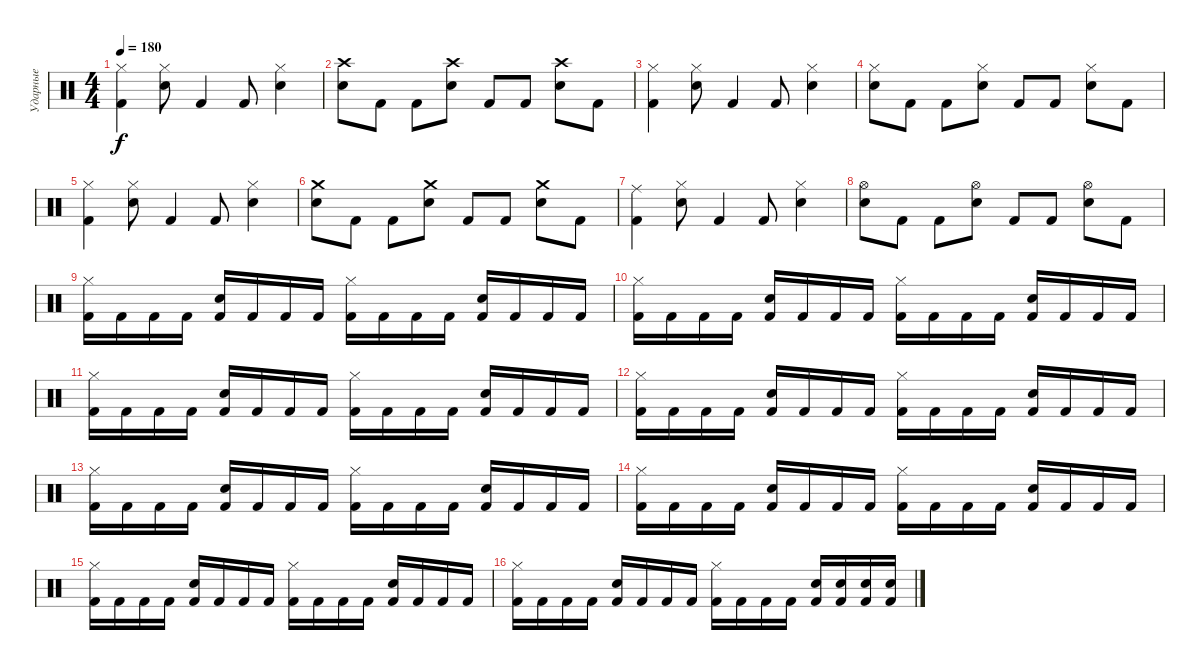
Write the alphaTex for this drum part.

\track ("Ударные" "Ударные") {instrument percussion}
\staff {score}
\articulation defaults
\ts (4 4)
\tempo 180
\clef neutral
\ks c
("Hi-Hat (closed)" "Kick (hit) 2").4{dy f} ("Hi-Hat (closed)" "Snare (hit) 2").8 "Kick (hit) 2".4 "Kick (hit) 2".8 ("Hi-Hat (closed)" "Snare (hit) 2").4 |
("Crash high (hit)" "Snare (hit) 2").8 "Kick (hit) 2".8 "Kick (hit) 2".8 ("Crash high (hit)" "Snare (hit) 2").8 "Kick (hit) 2".8 "Kick (hit) 2".8 ("Crash high (hit)" "Snare (hit) 2").8 "Kick (hit) 2".8 |
("Hi-Hat (closed)" "Kick (hit) 2").4 ("Hi-Hat (closed)" "Snare (hit) 2").8 "Kick (hit) 2".4 "Kick (hit) 2".8 ("Hi-Hat (closed)" "Snare (hit) 2").4 |
("Hi-Hat (closed)" "Snare (hit) 2").8 "Kick (hit) 2".8 "Kick (hit) 2".8 ("Hi-Hat (closed)" "Snare (hit) 2").8 "Kick (hit) 2".8 "Kick (hit) 2".8 ("Hi-Hat (closed)" "Snare (hit) 2").8 "Kick (hit) 2".8 |
("Hi-Hat (closed)" "Kick (hit) 2").4 ("Hi-Hat (closed)" "Snare (hit) 2").8 "Kick (hit) 2".4 "Kick (hit) 2".8 ("Hi-Hat (closed)" "Snare (hit) 2").4 |
("Crash medium (hit)" "Snare (hit) 2").8 "Kick (hit) 2".8 "Kick (hit) 2".8 ("Crash medium (hit)" "Snare (hit) 2").8 "Kick (hit) 2".8 "Kick (hit) 2".8 ("Crash medium (hit)" "Snare (hit) 2").8 "Kick (hit) 2".8 |
("Ride (middle)" "Kick (hit) 2").4 ("Hi-Hat (closed)" "Snare (hit) 2").8 "Kick (hit) 2".4 "Kick (hit) 2".8 ("Hi-Hat (closed)" "Snare (hit) 2").4 |
("Hi-Hat (open)" "Snare (hit) 2").8 "Kick (hit) 2".8 "Kick (hit) 2".8 ("Hi-Hat (open)" "Snare (hit) 2").8 "Kick (hit) 2".8 "Kick (hit) 2".8 ("Hi-Hat (open)" "Snare (hit) 2").8 "Kick (hit) 2".8 |
("Hi-Hat (closed)" "Kick (hit) 2").16 "Kick (hit) 2".16 "Kick (hit) 2".16 "Kick (hit) 2".16 ("Snare (hit) 2" "Kick (hit) 2").16 "Kick (hit) 2".16 "Kick (hit) 2".16 "Kick (hit) 2".16 ("Hi-Hat (closed)" "Kick (hit) 2").16 "Kick (hit) 2".16 "Kick (hit) 2".16 "Kick (hit) 2".16 ("Snare (hit) 2" "Kick (hit) 2").16 "Kick (hit) 2".16 "Kick (hit) 2".16 "Kick (hit) 2".16 |
("Hi-Hat (closed)" "Kick (hit) 2").16 "Kick (hit) 2".16 "Kick (hit) 2".16 "Kick (hit) 2".16 ("Snare (hit) 2" "Kick (hit) 2").16 "Kick (hit) 2".16 "Kick (hit) 2".16 "Kick (hit) 2".16 ("Hi-Hat (closed)" "Kick (hit) 2").16 "Kick (hit) 2".16 "Kick (hit) 2".16 "Kick (hit) 2".16 ("Snare (hit) 2" "Kick (hit) 2").16 "Kick (hit) 2".16 "Kick (hit) 2".16 "Kick (hit) 2".16 |
("Hi-Hat (closed)" "Kick (hit) 2").16 "Kick (hit) 2".16 "Kick (hit) 2".16 "Kick (hit) 2".16 ("Snare (hit) 2" "Kick (hit) 2").16 "Kick (hit) 2".16 "Kick (hit) 2".16 "Kick (hit) 2".16 ("Hi-Hat (closed)" "Kick (hit) 2").16 "Kick (hit) 2".16 "Kick (hit) 2".16 "Kick (hit) 2".16 ("Snare (hit) 2" "Kick (hit) 2").16 "Kick (hit) 2".16 "Kick (hit) 2".16 "Kick (hit) 2".16 |
("Hi-Hat (closed)" "Kick (hit) 2").16 "Kick (hit) 2".16 "Kick (hit) 2".16 "Kick (hit) 2".16 ("Snare (hit) 2" "Kick (hit) 2").16 "Kick (hit) 2".16 "Kick (hit) 2".16 "Kick (hit) 2".16 ("Hi-Hat (closed)" "Kick (hit) 2").16 "Kick (hit) 2".16 "Kick (hit) 2".16 "Kick (hit) 2".16 ("Snare (hit) 2" "Kick (hit) 2").16 "Kick (hit) 2".16 "Kick (hit) 2".16 "Kick (hit) 2".16 |
("Hi-Hat (closed)" "Kick (hit) 2").16 "Kick (hit) 2".16 "Kick (hit) 2".16 "Kick (hit) 2".16 ("Snare (hit) 2" "Kick (hit) 2").16 "Kick (hit) 2".16 "Kick (hit) 2".16 "Kick (hit) 2".16 ("Hi-Hat (closed)" "Kick (hit) 2").16 "Kick (hit) 2".16 "Kick (hit) 2".16 "Kick (hit) 2".16 ("Snare (hit) 2" "Kick (hit) 2").16 "Kick (hit) 2".16 "Kick (hit) 2".16 "Kick (hit) 2".16 |
("Hi-Hat (closed)" "Kick (hit) 2").16 "Kick (hit) 2".16 "Kick (hit) 2".16 "Kick (hit) 2".16 ("Snare (hit) 2" "Kick (hit) 2").16 "Kick (hit) 2".16 "Kick (hit) 2".16 "Kick (hit) 2".16 ("Hi-Hat (closed)" "Kick (hit) 2").16 "Kick (hit) 2".16 "Kick (hit) 2".16 "Kick (hit) 2".16 ("Snare (hit) 2" "Kick (hit) 2").16 "Kick (hit) 2".16 "Kick (hit) 2".16 "Kick (hit) 2".16 |
("Hi-Hat (closed)" "Kick (hit) 2").16 "Kick (hit) 2".16 "Kick (hit) 2".16 "Kick (hit) 2".16 ("Snare (hit) 2" "Kick (hit) 2").16 "Kick (hit) 2".16 "Kick (hit) 2".16 "Kick (hit) 2".16 ("Hi-Hat (closed)" "Kick (hit) 2").16 "Kick (hit) 2".16 "Kick (hit) 2".16 "Kick (hit) 2".16 ("Snare (hit) 2" "Kick (hit) 2").16 "Kick (hit) 2".16 "Kick (hit) 2".16 "Kick (hit) 2".16 |
("Hi-Hat (closed)" "Kick (hit) 2").16 "Kick (hit) 2".16 "Kick (hit) 2".16 "Kick (hit) 2".16 ("Snare (hit) 2" "Kick (hit) 2").16 "Kick (hit) 2".16 "Kick (hit) 2".16 "Kick (hit) 2".16 ("Hi-Hat (closed)" "Kick (hit) 2").16 "Kick (hit) 2".16 "Kick (hit) 2".16 "Kick (hit) 2".16 ("Snare (hit) 2" "Kick (hit) 2").16 ("Snare (hit) 2" "Kick (hit) 2").16 ("Snare (hit) 2" "Kick (hit) 2").16 ("Snare (hit) 2" "Kick (hit) 2").16
